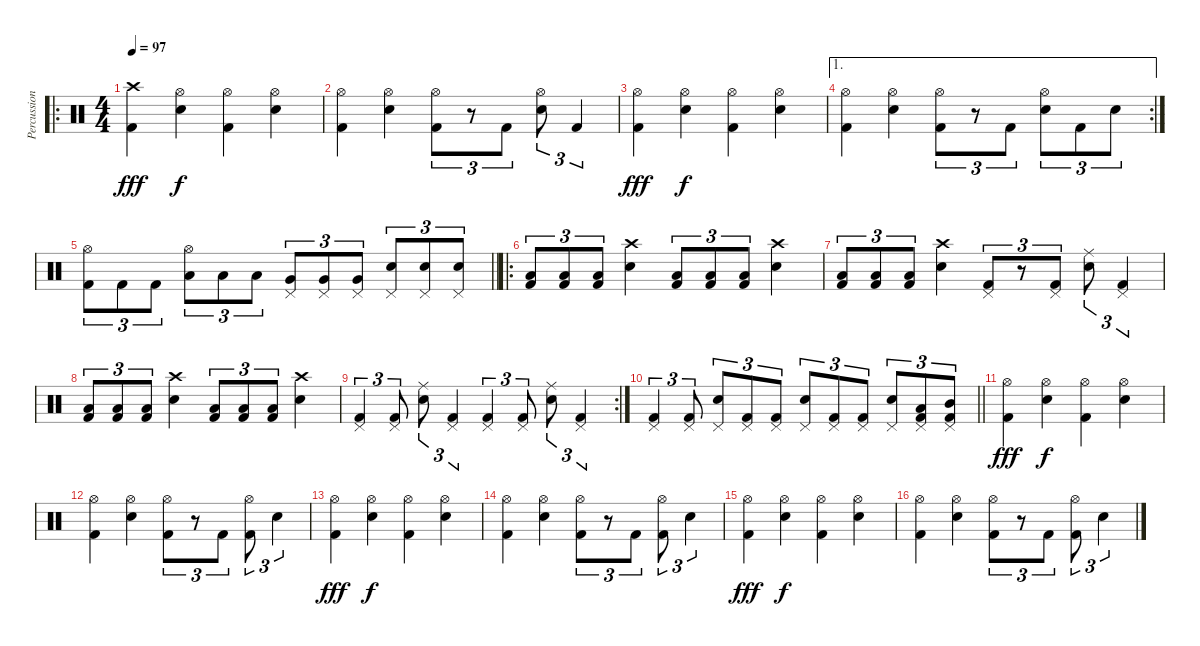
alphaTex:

\track ("Percussion" "Percussion") {instrument percussion}
\staff {score}
\articulation defaults
\ro
\ts (4 4)
\tempo 97
\clef neutral
\ks c
("Crash high (hit)" "Kick (hit) 2").4{dy fff} ("Hi-Hat (open)" "Snare (hit) 2").4{dy f} ("Hi-Hat (open)" "Kick (hit) 2").4 ("Hi-Hat (open)" "Snare (hit) 2").4 |
("Hi-Hat (open)" "Kick (hit) 2").4 ("Hi-Hat (open)" "Snare (hit) 2").4 ("Hi-Hat (open)" "Kick (hit) 2").8{tu (3 2)} r.8{tu (3 2)} "Kick (hit) 2".8{tu (3 2)} ("Hi-Hat (open)" "Snare (hit) 2").8{tu (3 2)} "Kick (hit) 2".4{tu (3 2)} |
("Hi-Hat (open)" "Kick (hit) 2").4{dy fff} ("Hi-Hat (open)" "Snare (hit) 2").4{dy f} ("Hi-Hat (open)" "Kick (hit) 2").4 ("Hi-Hat (open)" "Snare (hit) 2").4 |
\ae 1
\rc 2
("Hi-Hat (open)" "Kick (hit) 2").4 ("Hi-Hat (open)" "Snare (hit) 2").4 ("Hi-Hat (open)" "Kick (hit) 2").8{tu (3 2)} r.8{tu (3 2)} "Kick (hit) 2".8{tu (3 2)} ("Hi-Hat (open)" "Snare (hit) 2").8{tu (3 2)} "Kick (hit) 2".8{tu (3 2)} "Snare (hit) 2".8{tu (3 2)} |
\barLineRight lightlight
("Hi-Hat (open)" "Kick (hit) 2").8{tu (3 2)} "Kick (hit) 2".8{tu (3 2)} "Kick (hit) 2".8{tu (3 2)} ("Hi-Hat (open)" "Low Tom (hit)").8{tu (3 2)} "Low Tom (hit)".8{tu (3 2)} "Low Tom (hit)".8{tu (3 2)} ("Pedal Hi-Hat (hit)" "Very Low Tom (hit)").8{tu (3 2)} ("Pedal Hi-Hat (hit)" "Very Low Tom (hit)").8{tu (3 2)} ("Pedal Hi-Hat (hit)" "Very Low Tom (hit)").8{tu (3 2)} ("Pedal Hi-Hat (hit)" "Snare (hit) 2").8{tu (3 2)} ("Pedal Hi-Hat (hit)" "Snare (hit) 2").8{tu (3 2)} ("Pedal Hi-Hat (hit)" "Snare (hit) 2").8{tu (3 2)} |
\ro
("Low Floor Tom (hit)" "Kick (hit) 2").8{tu (3 2)} ("Low Floor Tom (hit)" "Kick (hit) 2").8{tu (3 2)} ("Low Floor Tom (hit)" "Kick (hit) 2").8{tu (3 2)} ("Crash high (hit)" "Snare (hit) 2").4 ("Low Floor Tom (hit)" "Kick (hit) 2").8{tu (3 2)} ("Low Floor Tom (hit)" "Kick (hit) 2").8{tu (3 2)} ("Low Floor Tom (hit)" "Kick (hit) 2").8{tu (3 2)} ("Crash high (hit)" "Snare (hit) 2").4 |
("Low Floor Tom (hit)" "Kick (hit) 2").8{tu (3 2)} ("Low Floor Tom (hit)" "Kick (hit) 2").8{tu (3 2)} ("Low Floor Tom (hit)" "Kick (hit) 2").8{tu (3 2)} ("Crash high (hit)" "Snare (hit) 2").4 ("Pedal Hi-Hat (hit)" "Kick (hit) 2").8{tu (3 2)} r.8{tu (3 2)} ("Pedal Hi-Hat (hit)" "Kick (hit) 2").8{tu (3 2)} ("Ride (middle)" "Snare (hit) 2").8{tu (3 2)} ("Pedal Hi-Hat (hit)" "Kick (hit) 2").4{tu (3 2)} |
("Low Floor Tom (hit)" "Kick (hit) 2").8{tu (3 2)} ("Low Floor Tom (hit)" "Kick (hit) 2").8{tu (3 2)} ("Low Floor Tom (hit)" "Kick (hit) 2").8{tu (3 2)} ("Crash high (hit)" "Snare (hit) 2").4 ("Low Floor Tom (hit)" "Kick (hit) 2").8{tu (3 2)} ("Low Floor Tom (hit)" "Kick (hit) 2").8{tu (3 2)} ("Low Floor Tom (hit)" "Kick (hit) 2").8{tu (3 2)} ("Crash high (hit)" "Snare (hit) 2").4 |
\rc 2
("Pedal Hi-Hat (hit)" "Kick (hit) 2").4{tu (3 2)} ("Pedal Hi-Hat (hit)" "Kick (hit) 2").8{tu (3 2)} ("Ride (middle)" "Snare (hit) 2").8{tu (3 2)} ("Pedal Hi-Hat (hit)" "Kick (hit) 2").4{tu (3 2)} ("Pedal Hi-Hat (hit)" "Kick (hit) 2").4{tu (3 2)} ("Pedal Hi-Hat (hit)" "Kick (hit) 2").8{tu (3 2)} ("Ride (middle)" "Snare (hit) 2").8{tu (3 2)} ("Pedal Hi-Hat (hit)" "Kick (hit) 2").4{tu (3 2)} |
\barLineRight lightlight
("Pedal Hi-Hat (hit)" "Kick (hit) 2").4{tu (3 2)} ("Pedal Hi-Hat (hit)" "Kick (hit) 2").8{tu (3 2)} ("Pedal Hi-Hat (hit)" "Snare (hit) 2").8{tu (3 2)} ("Pedal Hi-Hat (hit)" "Kick (hit) 2").8{tu (3 2)} ("Pedal Hi-Hat (hit)" "Kick (hit) 2").8{tu (3 2)} ("Pedal Hi-Hat (hit)" "Snare (hit) 2").8{tu (3 2)} ("Pedal Hi-Hat (hit)" "Kick (hit) 2").8{tu (3 2)} ("Pedal Hi-Hat (hit)" "Kick (hit) 2").8{tu (3 2)} ("Pedal Hi-Hat (hit)" "Snare (hit) 2").8{tu (3 2)} ("Pedal Hi-Hat (hit)" "Low Tom (hit)" "Kick (hit) 2").8{tu (3 2)} ("Pedal Hi-Hat (hit)" "Mid Tom (hit)" "Kick (hit) 2").8{tu (3 2)} |
("Hi-Hat (open)" "Kick (hit) 2").4{dy fff} ("Hi-Hat (open)" "Snare (hit) 2").4{dy f} ("Hi-Hat (open)" "Kick (hit) 2").4 ("Hi-Hat (open)" "Snare (hit) 2").4 |
("Hi-Hat (open)" "Kick (hit) 2").4 ("Hi-Hat (open)" "Snare (hit) 2").4 ("Hi-Hat (open)" "Kick (hit) 2").8{tu (3 2)} r.8{tu (3 2)} "Kick (hit) 2".8{tu (3 2)} ("Hi-Hat (open)" "Kick (hit) 2").8{tu (3 2)} "Snare (hit) 2".4{tu (3 2)} |
("Hi-Hat (open)" "Kick (hit) 2").4{dy fff} ("Hi-Hat (open)" "Snare (hit) 2").4{dy f} ("Hi-Hat (open)" "Kick (hit) 2").4 ("Hi-Hat (open)" "Snare (hit) 2").4 |
("Hi-Hat (open)" "Kick (hit) 2").4 ("Hi-Hat (open)" "Snare (hit) 2").4 ("Hi-Hat (open)" "Kick (hit) 2").8{tu (3 2)} r.8{tu (3 2)} "Kick (hit) 2".8{tu (3 2)} ("Hi-Hat (open)" "Kick (hit) 2").8{tu (3 2)} "Snare (hit) 2".4{tu (3 2)} |
("Hi-Hat (open)" "Kick (hit) 2").4{dy fff} ("Hi-Hat (open)" "Snare (hit) 2").4{dy f} ("Hi-Hat (open)" "Kick (hit) 2").4 ("Hi-Hat (open)" "Snare (hit) 2").4 |
("Hi-Hat (open)" "Kick (hit) 2").4 ("Hi-Hat (open)" "Snare (hit) 2").4 ("Hi-Hat (open)" "Kick (hit) 2").8{tu (3 2)} r.8{tu (3 2)} "Kick (hit) 2".8{tu (3 2)} ("Hi-Hat (open)" "Kick (hit) 2").8{tu (3 2)} "Snare (hit) 2".4{tu (3 2)}
